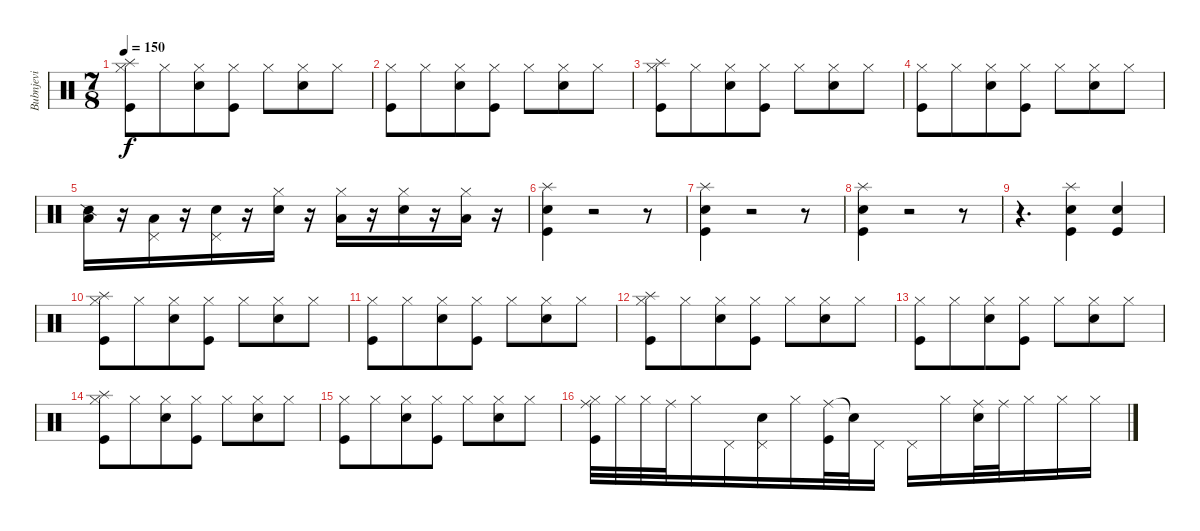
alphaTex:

\track ("Bubnjevi" "Bubnjevi") {instrument percussion}
\staff {score}
\articulation defaults
\ts (7 8)
\tempo 150
\clef neutral
\ks c
("Splash (hit)" "Kick (hit)" "Hi-Hat (closed)").8{dy f} "Hi-Hat (closed)".8 ("Snare (hit) 2" "Hi-Hat (closed)").8 ("Kick (hit)" "Hi-Hat (closed)").8 "Hi-Hat (closed)".8 ("Snare (hit) 2" "Hi-Hat (closed)").8 "Hi-Hat (closed)".8 |
("Kick (hit)" "Hi-Hat (closed)").8 "Hi-Hat (closed)".8 ("Snare (hit) 2" "Hi-Hat (closed)").8 ("Kick (hit)" "Hi-Hat (closed)").8 "Hi-Hat (closed)".8 ("Snare (hit) 2" "Hi-Hat (closed)").8 "Hi-Hat (closed)".8 |
("Splash (hit)" "Kick (hit)" "Hi-Hat (closed)").8 "Hi-Hat (closed)".8 ("Snare (hit) 2" "Hi-Hat (closed)").8 ("Kick (hit)" "Hi-Hat (closed)").8 "Hi-Hat (closed)".8 ("Snare (hit) 2" "Hi-Hat (closed)").8 "Hi-Hat (closed)".8 |
("Kick (hit)" "Hi-Hat (closed)").8 "Hi-Hat (closed)".8 ("Snare (hit) 2" "Hi-Hat (closed)").8 ("Kick (hit)" "Hi-Hat (closed)").8 "Hi-Hat (closed)".8 ("Snare (hit) 2" "Hi-Hat (closed)").8 "Hi-Hat (closed)".8 |
("Low Tom (hit)" "Snare (side stick) 2").16 r.16 ("Pedal Hi-Hat (hit)" "Low Tom (hit)").16 r.16 ("Pedal Hi-Hat (hit)" "Snare (hit) 2").16 r.16 ("Hi-Hat (closed)" "Snare (hit) 2").16 r.16 ("Hi-Hat (closed)" "Low Tom (hit)").16 r.16 ("Hi-Hat (closed)" "Snare (hit) 2").16 r.16 ("Hi-Hat (closed)" "Low Tom (hit)").16 r.16 |
("Splash (hit)" "Snare (hit) 2" "Kick (hit)").4 r.2 r.8 |
("Splash (hit)" "Snare (hit) 2" "Kick (hit)").4 r.2 r.8 |
("Splash (hit)" "Snare (hit) 2" "Kick (hit)").4 r.2 r.8 |
r.4{d} ("Splash (hit)" "Snare (hit) 2" "Kick (hit)").4 ("Snare (hit) 2" "Kick (hit)").4 |
("Splash (hit)" "Kick (hit)" "Hi-Hat (closed)").8 "Hi-Hat (closed)".8 ("Snare (hit) 2" "Hi-Hat (closed)").8 ("Kick (hit)" "Hi-Hat (closed)").8 "Hi-Hat (closed)".8 ("Snare (hit) 2" "Hi-Hat (closed)").8 "Hi-Hat (closed)".8 |
("Kick (hit)" "Hi-Hat (closed)").8 "Hi-Hat (closed)".8 ("Snare (hit) 2" "Hi-Hat (closed)").8 ("Kick (hit)" "Hi-Hat (closed)").8 "Hi-Hat (closed)".8 ("Snare (hit) 2" "Hi-Hat (closed)").8 "Hi-Hat (closed)".8 |
("Splash (hit)" "Kick (hit)" "Hi-Hat (closed)").8 "Hi-Hat (closed)".8 ("Snare (hit) 2" "Hi-Hat (closed)").8 ("Kick (hit)" "Hi-Hat (closed)").8 "Hi-Hat (closed)".8 ("Snare (hit) 2" "Hi-Hat (closed)").8 "Hi-Hat (closed)".8 |
("Kick (hit)" "Hi-Hat (closed)").8 "Hi-Hat (closed)".8 ("Snare (hit) 2" "Hi-Hat (closed)").8 ("Kick (hit)" "Hi-Hat (closed)").8 "Hi-Hat (closed)".8 ("Snare (hit) 2" "Hi-Hat (closed)").8 "Hi-Hat (closed)".8 |
("Splash (hit)" "Kick (hit)" "Hi-Hat (closed)").8 "Hi-Hat (closed)".8 ("Snare (hit) 2" "Hi-Hat (closed)").8 ("Kick (hit)" "Hi-Hat (closed)").8 "Hi-Hat (closed)".8 ("Snare (hit) 2" "Hi-Hat (closed)").8 "Hi-Hat (closed)".8 |
("Kick (hit)" "Hi-Hat (closed)").8 "Hi-Hat (closed)".8 ("Snare (hit) 2" "Hi-Hat (closed)").8 ("Kick (hit)" "Hi-Hat (closed)").8 "Hi-Hat (closed)".8 ("Snare (hit) 2" "Hi-Hat (closed)").8 "Hi-Hat (closed)".8 |
("Hi-Hat (closed)" "Ride (middle)" "Kick (hit)").32 "Hi-Hat (closed)".32 "Hi-Hat (closed)".32 "Ride (middle)".32 "Hi-Hat (closed)".16 "Pedal Hi-Hat (hit)".16 ("Pedal Hi-Hat (hit)" "Snare (hit) 2").16 "Hi-Hat (closed)".16 ("Ride (middle)" "Kick (hit)").32 "Snare (hit)"{t}.32 "Pedal Hi-Hat (hit)".16 "Pedal Hi-Hat (hit)".16 "Hi-Hat (closed)".16 ("Ride (middle)" "Snare (hit) 2").32 "Ride (middle)".32 "Hi-Hat (closed)".16 "Hi-Hat (closed)".16 "Hi-Hat (closed)".16
